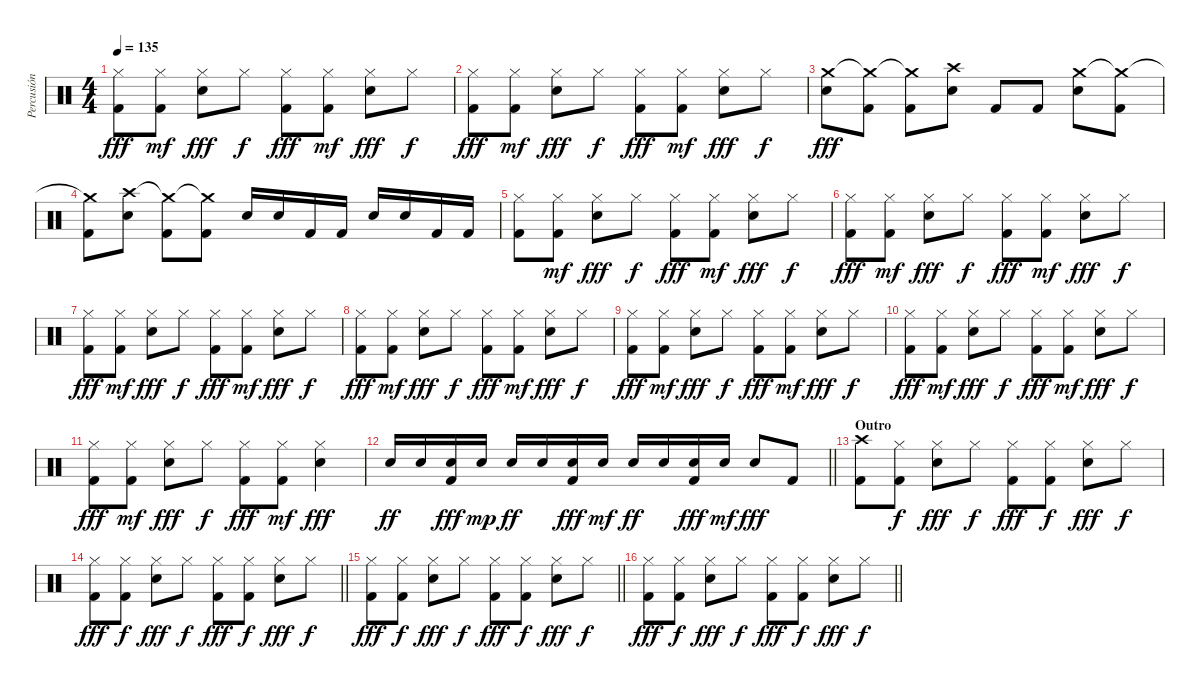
\track ("Percusión" "Percusión") {instrument percussion}
\staff {score}
\articulation defaults
\ts (4 4)
\tempo 135
\clef neutral
\ks c
("Hi-Hat (closed)" "Kick (hit) 2").8{dy fff} ("Hi-Hat (closed)" "Kick (hit) 2").8{dy mf} ("Hi-Hat (closed)" "Electric Snare (hit)").8{dy fff} "Hi-Hat (closed)".8{dy f} ("Hi-Hat (closed)" "Kick (hit) 2").8{dy fff} ("Hi-Hat (closed)" "Kick (hit) 2").8{dy mf} ("Hi-Hat (closed)" "Electric Snare (hit)").8{dy fff} "Hi-Hat (closed)".8{dy f} |
("Hi-Hat (closed)" "Kick (hit) 2").8{dy fff} ("Hi-Hat (closed)" "Kick (hit) 2").8{dy mf} ("Hi-Hat (closed)" "Electric Snare (hit)").8{dy fff} "Hi-Hat (closed)".8{dy f} ("Hi-Hat (closed)" "Kick (hit) 2").8{dy fff} ("Hi-Hat (closed)" "Kick (hit) 2").8{dy mf} ("Hi-Hat (closed)" "Electric Snare (hit)").8{dy fff} "Hi-Hat (closed)".8{dy f} |
("Crash medium (hit)" "Electric Snare (hit)").8{dy fff} ("Crash medium (hit)"{t} "Kick (hit) 2").8 ("Crash medium (hit)"{t} "Kick (hit) 2").8 ("Crash high (hit)" "Electric Snare (hit)").8 "Kick (hit) 2".8 "Kick (hit) 2".8 ("Crash medium (hit)" "Electric Snare (hit)").8 ("Crash medium (hit)"{t} "Kick (hit) 2").8 |
("Crash medium (hit)"{t} "Kick (hit) 2").8 ("Crash high (hit)" "Electric Snare (hit)").8 ("Crash medium (hit)"{t} "Kick (hit) 2").8 ("Crash medium (hit)"{t} "Kick (hit) 2").8 "Electric Snare (hit)".16 "Electric Snare (hit)".16 "Kick (hit) 2".16 "Kick (hit) 2".16 "Electric Snare (hit)".16 "Electric Snare (hit)".16 "Kick (hit) 2".16 "Kick (hit) 2".16 |
("Hi-Hat (closed)" "Kick (hit) 2").8 ("Hi-Hat (closed)" "Kick (hit) 2").8{dy mf} ("Hi-Hat (closed)" "Electric Snare (hit)").8{dy fff} "Hi-Hat (closed)".8{dy f} ("Hi-Hat (closed)" "Kick (hit) 2").8{dy fff} ("Hi-Hat (closed)" "Kick (hit) 2").8{dy mf} ("Hi-Hat (closed)" "Electric Snare (hit)").8{dy fff} "Hi-Hat (closed)".8{dy f} |
("Hi-Hat (closed)" "Kick (hit) 2").8{dy fff} ("Hi-Hat (closed)" "Kick (hit) 2").8{dy mf} ("Hi-Hat (closed)" "Electric Snare (hit)").8{dy fff} "Hi-Hat (closed)".8{dy f} ("Hi-Hat (closed)" "Kick (hit) 2").8{dy fff} ("Hi-Hat (closed)" "Kick (hit) 2").8{dy mf} ("Hi-Hat (closed)" "Electric Snare (hit)").8{dy fff} "Hi-Hat (closed)".8{dy f} |
("Hi-Hat (closed)" "Kick (hit) 2").8{dy fff} ("Hi-Hat (closed)" "Kick (hit) 2").8{dy mf} ("Hi-Hat (closed)" "Electric Snare (hit)").8{dy fff} "Hi-Hat (closed)".8{dy f} ("Hi-Hat (closed)" "Kick (hit) 2").8{dy fff} ("Hi-Hat (closed)" "Kick (hit) 2").8{dy mf} ("Hi-Hat (closed)" "Electric Snare (hit)").8{dy fff} "Hi-Hat (closed)".8{dy f} |
("Hi-Hat (closed)" "Kick (hit) 2").8{dy fff} ("Hi-Hat (closed)" "Kick (hit) 2").8{dy mf} ("Hi-Hat (closed)" "Electric Snare (hit)").8{dy fff} "Hi-Hat (closed)".8{dy f} ("Hi-Hat (closed)" "Kick (hit) 2").8{dy fff} ("Hi-Hat (closed)" "Kick (hit) 2").8{dy mf} ("Hi-Hat (closed)" "Electric Snare (hit)").8{dy fff} "Hi-Hat (closed)".8{dy f} |
("Hi-Hat (closed)" "Kick (hit) 2").8{dy fff} ("Hi-Hat (closed)" "Kick (hit) 2").8{dy mf} ("Hi-Hat (closed)" "Electric Snare (hit)").8{dy fff} "Hi-Hat (closed)".8{dy f} ("Hi-Hat (closed)" "Kick (hit) 2").8{dy fff} ("Hi-Hat (closed)" "Kick (hit) 2").8{dy mf} ("Hi-Hat (closed)" "Electric Snare (hit)").8{dy fff} "Hi-Hat (closed)".8{dy f} |
("Hi-Hat (closed)" "Kick (hit) 2").8{dy fff} ("Hi-Hat (closed)" "Kick (hit) 2").8{dy mf} ("Hi-Hat (closed)" "Electric Snare (hit)").8{dy fff} "Hi-Hat (closed)".8{dy f} ("Hi-Hat (closed)" "Kick (hit) 2").8{dy fff} ("Hi-Hat (closed)" "Kick (hit) 2").8{dy mf} ("Hi-Hat (closed)" "Electric Snare (hit)").8{dy fff} "Hi-Hat (closed)".8{dy f} |
("Hi-Hat (closed)" "Kick (hit) 2").8{dy fff} ("Hi-Hat (closed)" "Kick (hit) 2").8{dy mf} ("Hi-Hat (closed)" "Electric Snare (hit)").8{dy fff} "Hi-Hat (closed)".8{dy f} ("Hi-Hat (closed)" "Kick (hit) 2").8{dy fff} ("Hi-Hat (closed)" "Kick (hit) 2").8{dy mf} ("Hi-Hat (closed)" "Electric Snare (hit)").4{dy fff} |
\barLineRight lightlight "Electric Snare (hit)".16{dy ff} "Electric Snare (hit)".16
("Electric Snare (hit)" "Kick (hit) 2").16{dy fff} "Electric Snare (hit)".16{dy mp} "Electric Snare (hit)".16{dy ff} "Electric Snare (hit)".16 ("Electric Snare (hit)" "Kick (hit) 2").16{dy fff} "Electric Snare (hit)".16{dy mf} "Electric Snare (hit)".16{dy ff} "Electric Snare (hit)".16 ("Electric Snare (hit)" "Kick (hit) 2").16{dy fff} "Electric Snare (hit)".16{dy mf} "Electric Snare (hit)".8{dy fff} "Kick (hit) 2".8 |
\section ("" "Outro")
("Crash high (hit)" "Kick (hit) 2").8 ("Hi-Hat (closed)" "Kick (hit) 2").8{dy f} ("Hi-Hat (closed)" "Electric Snare (hit)").8{dy fff} "Hi-Hat (closed)".8{dy f} ("Hi-Hat (closed)" "Kick (hit) 2").8{dy fff} ("Hi-Hat (closed)" "Kick (hit) 2").8{dy f} ("Hi-Hat (closed)" "Electric Snare (hit)").8{dy fff} "Hi-Hat (closed)".8{dy f} |
\barLineRight lightlight
("Hi-Hat (closed)" "Kick (hit) 2").8{dy fff} ("Hi-Hat (closed)" "Kick (hit) 2").8{dy f} ("Hi-Hat (closed)" "Electric Snare (hit)").8{dy fff} "Hi-Hat (closed)".8{dy f} ("Hi-Hat (closed)" "Kick (hit) 2").8{dy fff} ("Hi-Hat (closed)" "Kick (hit) 2").8{dy f} ("Hi-Hat (closed)" "Electric Snare (hit)").8{dy fff} "Hi-Hat (closed)".8{dy f} |
\barLineRight lightlight
("Hi-Hat (closed)" "Kick (hit) 2").8{dy fff} ("Hi-Hat (closed)" "Kick (hit) 2").8{dy f} ("Hi-Hat (closed)" "Electric Snare (hit)").8{dy fff} "Hi-Hat (closed)".8{dy f} ("Hi-Hat (closed)" "Kick (hit) 2").8{dy fff} ("Hi-Hat (closed)" "Kick (hit) 2").8{dy f} ("Hi-Hat (closed)" "Electric Snare (hit)").8{dy fff} "Hi-Hat (closed)".8{dy f} |
\barLineRight lightlight
("Hi-Hat (closed)" "Kick (hit) 2").8{dy fff} ("Hi-Hat (closed)" "Kick (hit) 2").8{dy f} ("Hi-Hat (closed)" "Electric Snare (hit)").8{dy fff} "Hi-Hat (closed)".8{dy f} ("Hi-Hat (closed)" "Kick (hit) 2").8{dy fff} ("Hi-Hat (closed)" "Kick (hit) 2").8{dy f} ("Hi-Hat (closed)" "Electric Snare (hit)").8{dy fff} "Hi-Hat (closed)".8{dy f}
